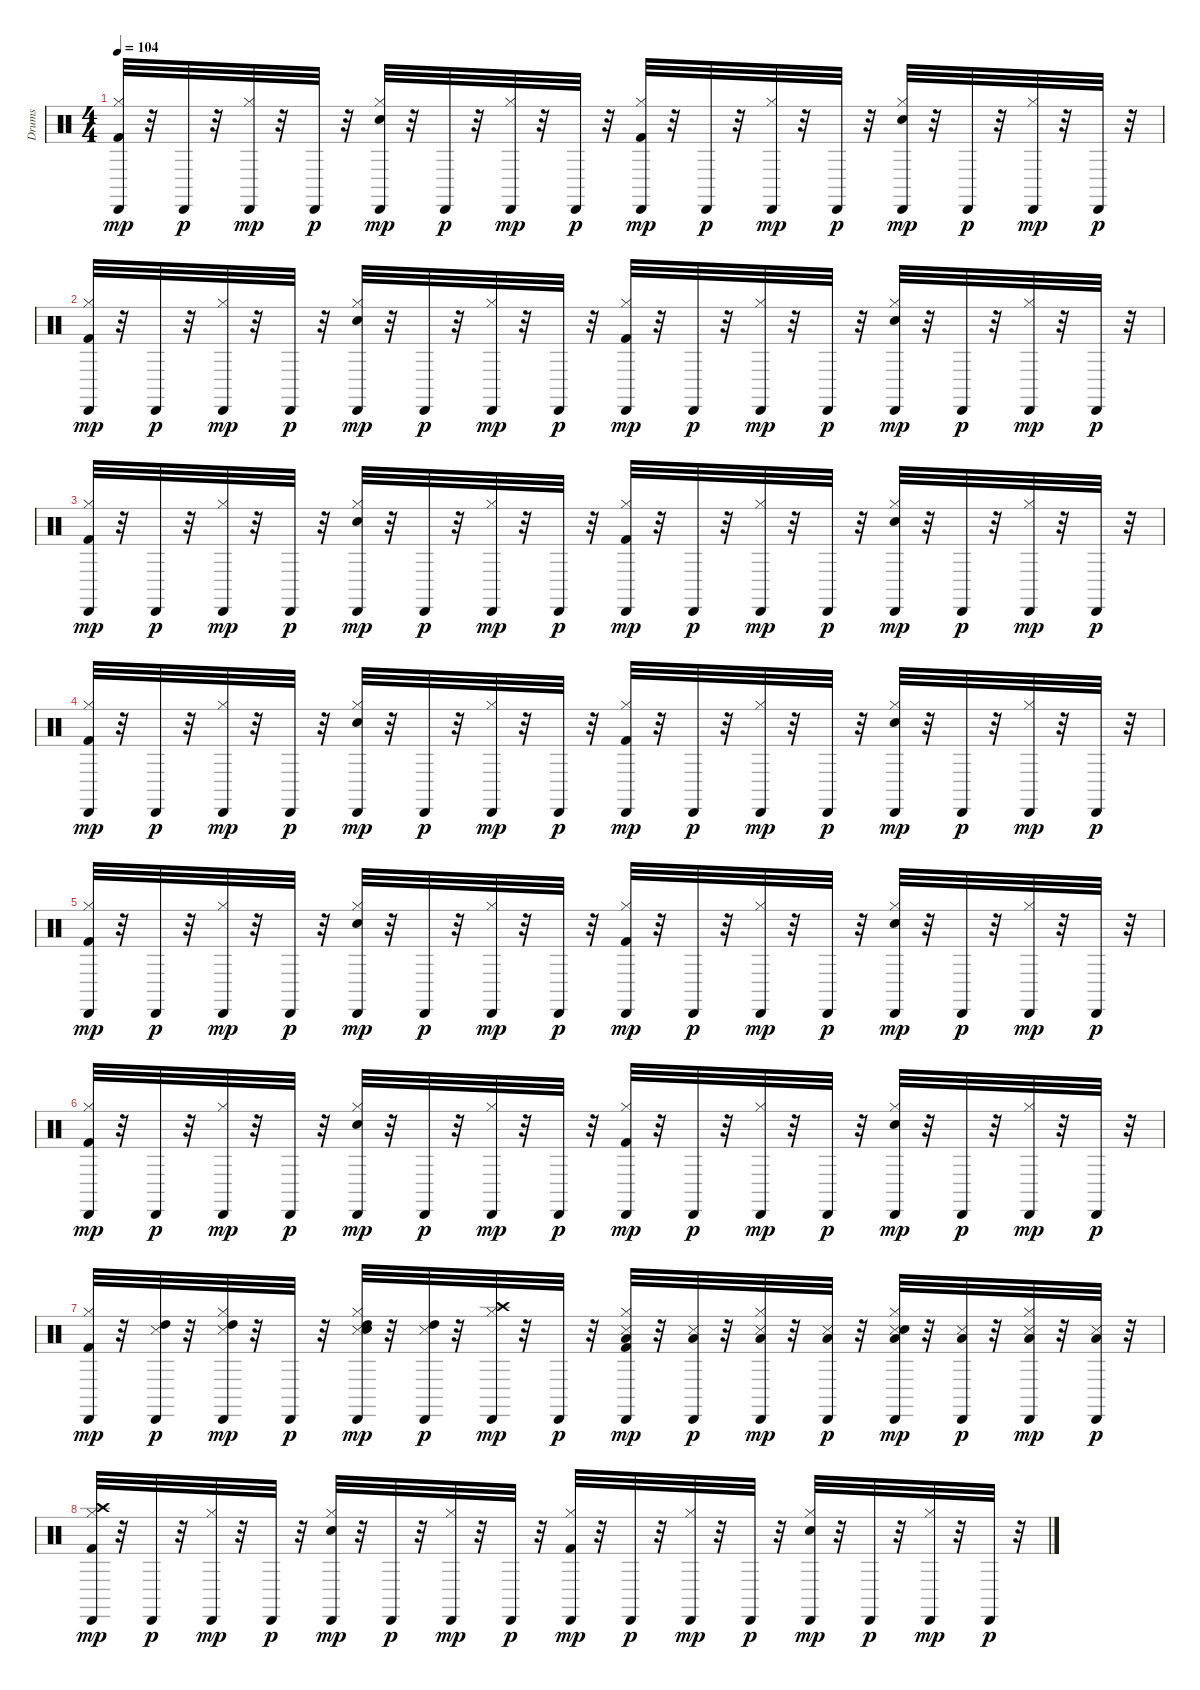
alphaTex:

\track ("Drums               " "Drums     ") {instrument percussion}
\staff {score}
\articulation defaults
\ts (4 4)
\tempo 104
\clef neutral
\ks c
("Kick (hit) 2" "Hi-Hat (closed)" "Cabasa (hit)").32{dy mp} r.32 "Cabasa (hit)".32{dy p} r.32 ("Hi-Hat (closed)" "Cabasa (hit)").32{dy mp} r.32 "Cabasa (hit)".32{dy p} r.32 ("Snare (hit) 2" "Hi-Hat (closed)" "Cabasa (hit)").32{dy mp} r.32 "Cabasa (hit)".32{dy p} r.32 ("Hi-Hat (closed)" "Cabasa (hit)").32{dy mp} r.32 "Cabasa (hit)".32{dy p} r.32 ("Kick (hit) 2" "Hi-Hat (closed)" "Cabasa (hit)").32{dy mp} r.32 "Cabasa (hit)".32{dy p} r.32 ("Hi-Hat (closed)" "Cabasa (hit)").32{dy mp} r.32 "Cabasa (hit)".32{dy p} r.32 ("Snare (hit) 2" "Hi-Hat (closed)" "Cabasa (hit)").32{dy mp} r.32 "Cabasa (hit)".32{dy p} r.32 ("Hi-Hat (closed)" "Cabasa (hit)").32{dy mp} r.32 "Cabasa (hit)".32{dy p} r.32 |
("Kick (hit) 2" "Hi-Hat (closed)" "Cabasa (hit)").32{dy mp} r.32 "Cabasa (hit)".32{dy p} r.32 ("Hi-Hat (closed)" "Cabasa (hit)").32{dy mp} r.32 "Cabasa (hit)".32{dy p} r.32 ("Snare (hit) 2" "Hi-Hat (closed)" "Cabasa (hit)").32{dy mp} r.32 "Cabasa (hit)".32{dy p} r.32 ("Hi-Hat (closed)" "Cabasa (hit)").32{dy mp} r.32 "Cabasa (hit)".32{dy p} r.32 ("Kick (hit) 2" "Hi-Hat (closed)" "Cabasa (hit)").32{dy mp} r.32 "Cabasa (hit)".32{dy p} r.32 ("Hi-Hat (closed)" "Cabasa (hit)").32{dy mp} r.32 "Cabasa (hit)".32{dy p} r.32 ("Snare (hit) 2" "Hi-Hat (closed)" "Cabasa (hit)").32{dy mp} r.32 "Cabasa (hit)".32{dy p} r.32 ("Hi-Hat (closed)" "Cabasa (hit)").32{dy mp} r.32 "Cabasa (hit)".32{dy p} r.32 |
("Kick (hit) 2" "Hi-Hat (closed)" "Cabasa (hit)").32{dy mp} r.32 "Cabasa (hit)".32{dy p} r.32 ("Hi-Hat (closed)" "Cabasa (hit)").32{dy mp} r.32 "Cabasa (hit)".32{dy p} r.32 ("Snare (hit) 2" "Hi-Hat (closed)" "Cabasa (hit)").32{dy mp} r.32 "Cabasa (hit)".32{dy p} r.32 ("Hi-Hat (closed)" "Cabasa (hit)").32{dy mp} r.32 "Cabasa (hit)".32{dy p} r.32 ("Kick (hit) 2" "Hi-Hat (closed)" "Cabasa (hit)").32{dy mp} r.32 "Cabasa (hit)".32{dy p} r.32 ("Hi-Hat (closed)" "Cabasa (hit)").32{dy mp} r.32 "Cabasa (hit)".32{dy p} r.32 ("Snare (hit) 2" "Hi-Hat (closed)" "Cabasa (hit)").32{dy mp} r.32 "Cabasa (hit)".32{dy p} r.32 ("Hi-Hat (closed)" "Cabasa (hit)").32{dy mp} r.32 "Cabasa (hit)".32{dy p} r.32 |
("Kick (hit) 2" "Hi-Hat (closed)" "Cabasa (hit)").32{dy mp} r.32 "Cabasa (hit)".32{dy p} r.32 ("Hi-Hat (closed)" "Cabasa (hit)").32{dy mp} r.32 "Cabasa (hit)".32{dy p} r.32 ("Snare (hit) 2" "Hi-Hat (closed)" "Cabasa (hit)").32{dy mp} r.32 "Cabasa (hit)".32{dy p} r.32 ("Hi-Hat (closed)" "Cabasa (hit)").32{dy mp} r.32 "Cabasa (hit)".32{dy p} r.32 ("Kick (hit) 2" "Hi-Hat (closed)" "Cabasa (hit)").32{dy mp} r.32 "Cabasa (hit)".32{dy p} r.32 ("Hi-Hat (closed)" "Cabasa (hit)").32{dy mp} r.32 "Cabasa (hit)".32{dy p} r.32 ("Snare (hit) 2" "Hi-Hat (closed)" "Cabasa (hit)").32{dy mp} r.32 "Cabasa (hit)".32{dy p} r.32 ("Hi-Hat (closed)" "Cabasa (hit)").32{dy mp} r.32 "Cabasa (hit)".32{dy p} r.32 |
("Kick (hit) 2" "Hi-Hat (closed)" "Cabasa (hit)").32{dy mp} r.32 "Cabasa (hit)".32{dy p} r.32 ("Hi-Hat (closed)" "Cabasa (hit)").32{dy mp} r.32 "Cabasa (hit)".32{dy p} r.32 ("Snare (hit) 2" "Hi-Hat (closed)" "Cabasa (hit)").32{dy mp} r.32 "Cabasa (hit)".32{dy p} r.32 ("Hi-Hat (closed)" "Cabasa (hit)").32{dy mp} r.32 "Cabasa (hit)".32{dy p} r.32 ("Kick (hit) 2" "Hi-Hat (closed)" "Cabasa (hit)").32{dy mp} r.32 "Cabasa (hit)".32{dy p} r.32 ("Hi-Hat (closed)" "Cabasa (hit)").32{dy mp} r.32 "Cabasa (hit)".32{dy p} r.32 ("Snare (hit) 2" "Hi-Hat (closed)" "Cabasa (hit)").32{dy mp} r.32 "Cabasa (hit)".32{dy p} r.32 ("Hi-Hat (closed)" "Cabasa (hit)").32{dy mp} r.32 "Cabasa (hit)".32{dy p} r.32 |
("Kick (hit) 2" "Hi-Hat (closed)" "Cabasa (hit)").32{dy mp} r.32 "Cabasa (hit)".32{dy p} r.32 ("Hi-Hat (closed)" "Cabasa (hit)").32{dy mp} r.32 "Cabasa (hit)".32{dy p} r.32 ("Snare (hit) 2" "Hi-Hat (closed)" "Cabasa (hit)").32{dy mp} r.32 "Cabasa (hit)".32{dy p} r.32 ("Hi-Hat (closed)" "Cabasa (hit)").32{dy mp} r.32 "Cabasa (hit)".32{dy p} r.32 ("Kick (hit) 2" "Hi-Hat (closed)" "Cabasa (hit)").32{dy mp} r.32 "Cabasa (hit)".32{dy p} r.32 ("Hi-Hat (closed)" "Cabasa (hit)").32{dy mp} r.32 "Cabasa (hit)".32{dy p} r.32 ("Snare (hit) 2" "Hi-Hat (closed)" "Cabasa (hit)").32{dy mp} r.32 "Cabasa (hit)".32{dy p} r.32 ("Hi-Hat (closed)" "Cabasa (hit)").32{dy mp} r.32 "Cabasa (hit)".32{dy p} r.32 |
("Kick (hit) 2" "Hi-Hat (closed)" "Cabasa (hit)").32{dy mp} r.32 ("Snare (side stick) 3" "High Tom (hit)" "Cabasa (hit)").32{dy p} r.32 ("Snare (side stick) 3" "Hi-Hat (closed)" "High Tom (hit)" "Cabasa (hit)").32{dy mp} r.32 "Cabasa (hit)".32{dy p} r.32 ("Snare (side stick) 3" "Snare (hit) 2" "Hi-Hat (closed)" "High Tom (hit)" "Cabasa (hit)").32{dy mp} r.32 ("Snare (side stick) 3" "High Tom (hit)" "Cabasa (hit)").32{dy p} r.32 ("Hi-Hat (closed)" "Crash high (hit)" "Cabasa (hit)").32{dy mp} r.32 "Cabasa (hit)".32{dy p} r.32 ("Kick (hit) 2" "Snare (side stick) 3" "Hi-Hat (closed)" "Low Tom (hit)" "Cabasa (hit)").32{dy mp} r.32 ("Snare (side stick) 3" "Low Tom (hit)" "Cabasa (hit)").32{dy p} r.32 ("Snare (side stick) 3" "Hi-Hat (closed)" "Low Tom (hit)" "Cabasa (hit)").32{dy mp} r.32 ("Snare (side stick) 3" "Low Floor Tom (hit)" "Cabasa (hit)").32{dy p} r.32 ("Snare (side stick) 3" "Snare (hit) 2" "Low Floor Tom (hit)" "Hi-Hat (closed)" "Cabasa (hit)").32{dy mp} r.32 ("Snare (side stick) 3" "Low Floor Tom (hit)" "Cabasa (hit)").32{dy p} r.32 ("Snare (side stick) 3" "Low Floor Tom (hit)" "Hi-Hat (closed)" "Cabasa (hit)").32{dy mp} r.32 ("Snare (side stick) 3" "Low Floor Tom (hit)" "Cabasa (hit)").32{dy p} r.32 |
("Kick (hit) 2" "Hi-Hat (closed)" "Crash high (hit)" "Cabasa (hit)").32{dy mp} r.32 "Cabasa (hit)".32{dy p} r.32 ("Hi-Hat (closed)" "Cabasa (hit)").32{dy mp} r.32 "Cabasa (hit)".32{dy p} r.32 ("Snare (hit) 2" "Hi-Hat (closed)" "Cabasa (hit)").32{dy mp} r.32 "Cabasa (hit)".32{dy p} r.32 ("Hi-Hat (closed)" "Cabasa (hit)").32{dy mp} r.32 "Cabasa (hit)".32{dy p} r.32 ("Kick (hit) 2" "Hi-Hat (closed)" "Cabasa (hit)").32{dy mp} r.32 "Cabasa (hit)".32{dy p} r.32 ("Hi-Hat (closed)" "Cabasa (hit)").32{dy mp} r.32 "Cabasa (hit)".32{dy p} r.32 ("Snare (hit) 2" "Hi-Hat (closed)" "Cabasa (hit)").32{dy mp} r.32 "Cabasa (hit)".32{dy p} r.32 ("Hi-Hat (closed)" "Cabasa (hit)").32{dy mp} r.32 "Cabasa (hit)".32{dy p} r.32
